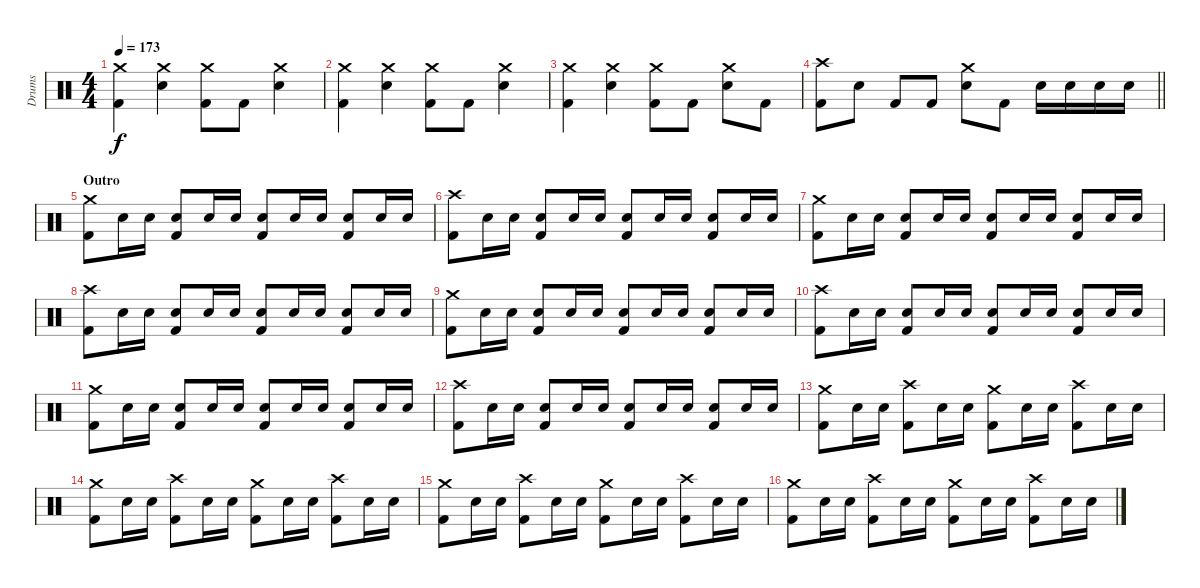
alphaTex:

\track ("Drums" "Drums") {instrument percussion}
\staff {score}
\articulation defaults
\ts (4 4)
\tempo 173
\clef neutral
\ks c
("Crash medium (hit)" "Kick (hit) 2").4{dy f} ("Crash medium (hit)" "Electric Snare (hit)").4 ("Crash medium (hit)" "Kick (hit) 2").8 "Kick (hit) 2".8 ("Crash medium (hit)" "Electric Snare (hit)").4 |
("Crash medium (hit)" "Kick (hit) 2").4 ("Crash medium (hit)" "Electric Snare (hit)").4 ("Crash medium (hit)" "Kick (hit) 2").8 "Kick (hit) 2".8 ("Crash medium (hit)" "Electric Snare (hit)").4 |
("Crash medium (hit)" "Kick (hit) 2").4 ("Crash medium (hit)" "Electric Snare (hit)").4 ("Crash medium (hit)" "Kick (hit) 2").8 "Kick (hit) 2".8 ("Crash medium (hit)" "Electric Snare (hit)").8 "Kick (hit) 2".8 |
\barLineRight lightlight
("Crash high (hit)" "Kick (hit) 2").8 "Electric Snare (hit)".8 "Kick (hit) 2".8 "Kick (hit) 2".8 ("Crash medium (hit)" "Electric Snare (hit)").8 "Kick (hit) 2".8 "Electric Snare (hit)".16 "Electric Snare (hit)".16 "Electric Snare (hit)".16 "Electric Snare (hit)".16 |
\section ("" "Outro")
("Crash medium (hit)" "Kick (hit) 2").8 "Electric Snare (hit)".16 "Electric Snare (hit)".16 ("Electric Snare (hit)" "Kick (hit) 2").8 "Electric Snare (hit)".16 "Electric Snare (hit)".16 ("Electric Snare (hit)" "Kick (hit) 2").8 "Electric Snare (hit)".16 "Electric Snare (hit)".16 ("Electric Snare (hit)" "Kick (hit) 2").8 "Electric Snare (hit)".16 "Electric Snare (hit)".16 |
("Crash high (hit)" "Kick (hit) 2").8 "Electric Snare (hit)".16 "Electric Snare (hit)".16 ("Electric Snare (hit)" "Kick (hit) 2").8 "Electric Snare (hit)".16 "Electric Snare (hit)".16 ("Electric Snare (hit)" "Kick (hit) 2").8 "Electric Snare (hit)".16 "Electric Snare (hit)".16 ("Electric Snare (hit)" "Kick (hit) 2").8 "Electric Snare (hit)".16 "Electric Snare (hit)".16 |
("Crash medium (hit)" "Kick (hit) 2").8 "Electric Snare (hit)".16 "Electric Snare (hit)".16 ("Electric Snare (hit)" "Kick (hit) 2").8 "Electric Snare (hit)".16 "Electric Snare (hit)".16 ("Electric Snare (hit)" "Kick (hit) 2").8 "Electric Snare (hit)".16 "Electric Snare (hit)".16 ("Electric Snare (hit)" "Kick (hit) 2").8 "Electric Snare (hit)".16 "Electric Snare (hit)".16 |
("Crash high (hit)" "Kick (hit) 2").8 "Electric Snare (hit)".16 "Electric Snare (hit)".16 ("Electric Snare (hit)" "Kick (hit) 2").8 "Electric Snare (hit)".16 "Electric Snare (hit)".16 ("Electric Snare (hit)" "Kick (hit) 2").8 "Electric Snare (hit)".16 "Electric Snare (hit)".16 ("Electric Snare (hit)" "Kick (hit) 2").8 "Electric Snare (hit)".16 "Electric Snare (hit)".16 |
("Crash medium (hit)" "Kick (hit) 2").8 "Electric Snare (hit)".16 "Electric Snare (hit)".16 ("Electric Snare (hit)" "Kick (hit) 2").8 "Electric Snare (hit)".16 "Electric Snare (hit)".16 ("Electric Snare (hit)" "Kick (hit) 2").8 "Electric Snare (hit)".16 "Electric Snare (hit)".16 ("Electric Snare (hit)" "Kick (hit) 2").8 "Electric Snare (hit)".16 "Electric Snare (hit)".16 |
("Crash high (hit)" "Kick (hit) 2").8 "Electric Snare (hit)".16 "Electric Snare (hit)".16 ("Electric Snare (hit)" "Kick (hit) 2").8 "Electric Snare (hit)".16 "Electric Snare (hit)".16 ("Electric Snare (hit)" "Kick (hit) 2").8 "Electric Snare (hit)".16 "Electric Snare (hit)".16 ("Electric Snare (hit)" "Kick (hit) 2").8 "Electric Snare (hit)".16 "Electric Snare (hit)".16 |
("Crash medium (hit)" "Kick (hit) 2").8 "Electric Snare (hit)".16 "Electric Snare (hit)".16 ("Electric Snare (hit)" "Kick (hit) 2").8 "Electric Snare (hit)".16 "Electric Snare (hit)".16 ("Electric Snare (hit)" "Kick (hit) 2").8 "Electric Snare (hit)".16 "Electric Snare (hit)".16 ("Electric Snare (hit)" "Kick (hit) 2").8 "Electric Snare (hit)".16 "Electric Snare (hit)".16 |
("Crash high (hit)" "Kick (hit) 2").8 "Electric Snare (hit)".16 "Electric Snare (hit)".16 ("Electric Snare (hit)" "Kick (hit) 2").8 "Electric Snare (hit)".16 "Electric Snare (hit)".16 ("Electric Snare (hit)" "Kick (hit) 2").8 "Electric Snare (hit)".16 "Electric Snare (hit)".16 ("Electric Snare (hit)" "Kick (hit) 2").8 "Electric Snare (hit)".16 "Electric Snare (hit)".16 |
("Crash medium (hit)" "Kick (hit) 2").8 "Electric Snare (hit)".16 "Electric Snare (hit)".16 ("Crash high (hit)" "Kick (hit) 2").8 "Electric Snare (hit)".16 "Electric Snare (hit)".16 ("Crash medium (hit)" "Kick (hit) 2").8 "Electric Snare (hit)".16 "Electric Snare (hit)".16 ("Crash high (hit)" "Kick (hit) 2").8 "Electric Snare (hit)".16 "Electric Snare (hit)".16 |
("Crash medium (hit)" "Kick (hit) 2").8 "Electric Snare (hit)".16 "Electric Snare (hit)".16 ("Crash high (hit)" "Kick (hit) 2").8 "Electric Snare (hit)".16 "Electric Snare (hit)".16 ("Crash medium (hit)" "Kick (hit) 2").8 "Electric Snare (hit)".16 "Electric Snare (hit)".16 ("Crash high (hit)" "Kick (hit) 2").8 "Electric Snare (hit)".16 "Electric Snare (hit)".16 |
("Crash medium (hit)" "Kick (hit) 2").8 "Electric Snare (hit)".16 "Electric Snare (hit)".16 ("Crash high (hit)" "Kick (hit) 2").8 "Electric Snare (hit)".16 "Electric Snare (hit)".16 ("Crash medium (hit)" "Kick (hit) 2").8 "Electric Snare (hit)".16 "Electric Snare (hit)".16 ("Crash high (hit)" "Kick (hit) 2").8 "Electric Snare (hit)".16 "Electric Snare (hit)".16 |
("Crash medium (hit)" "Kick (hit) 2").8 "Electric Snare (hit)".16 "Electric Snare (hit)".16 ("Crash high (hit)" "Kick (hit) 2").8 "Electric Snare (hit)".16 "Electric Snare (hit)".16 ("Crash medium (hit)" "Kick (hit) 2").8 "Electric Snare (hit)".16 "Electric Snare (hit)".16 ("Crash high (hit)" "Kick (hit) 2").8 "Electric Snare (hit)".16 "Electric Snare (hit)".16
